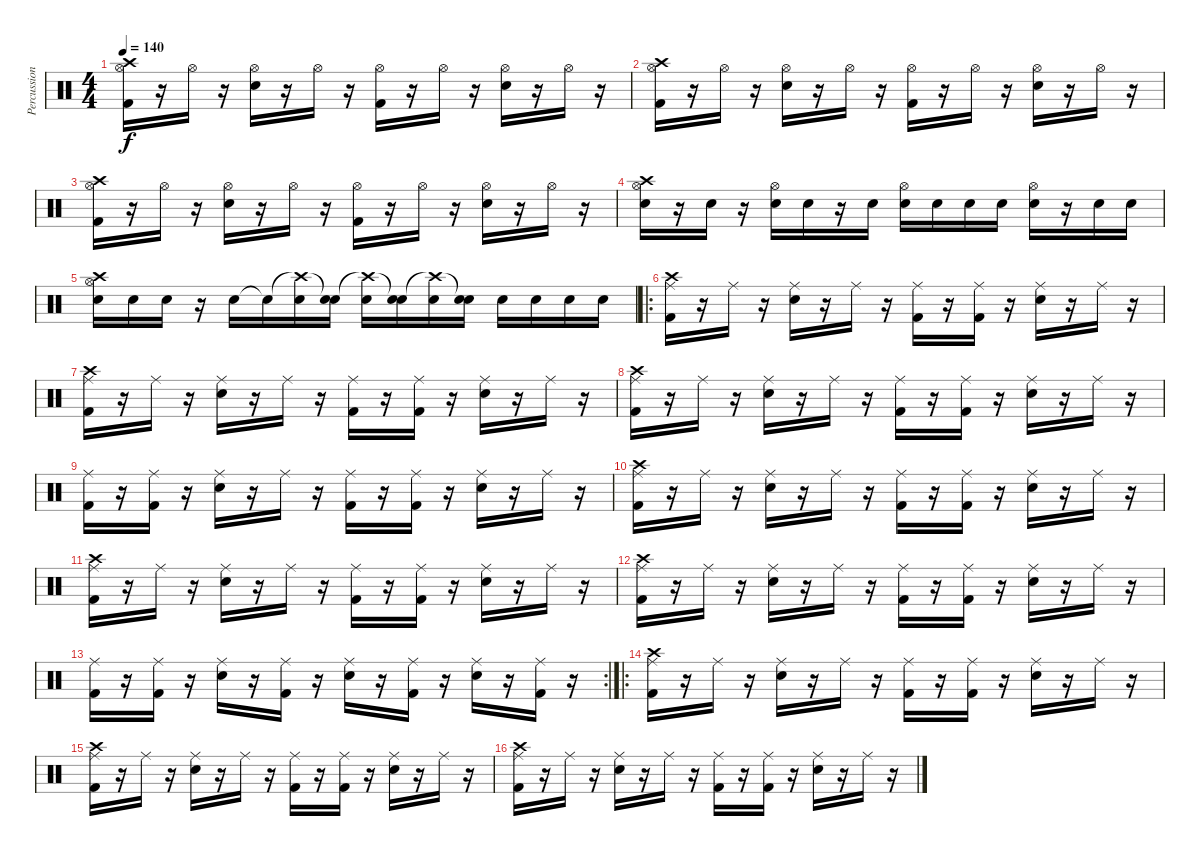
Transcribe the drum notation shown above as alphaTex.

\track ("Percussion" "Percussion") {instrument percussion}
\staff {score}
\articulation defaults
\ts (4 4)
\tempo 140
\clef neutral
\ks c
("Hi-Hat (open)" "Crash high (hit)" "Kick (hit) 2").16{dy f} r.16 "Hi-Hat (open)".16 r.16 ("Hi-Hat (open)" "Electric Snare (hit)").16 r.16 "Hi-Hat (open)".16 r.16 ("Hi-Hat (open)" "Kick (hit) 2").16 r.16 "Hi-Hat (open)".16 r.16 ("Hi-Hat (open)" "Electric Snare (hit)").16 r.16 "Hi-Hat (open)".16 r.16 |
("Hi-Hat (open)" "Crash high (hit)" "Kick (hit) 2").16 r.16 "Hi-Hat (open)".16 r.16 ("Hi-Hat (open)" "Electric Snare (hit)").16 r.16 "Hi-Hat (open)".16 r.16 ("Hi-Hat (open)" "Kick (hit) 2").16 r.16 "Hi-Hat (open)".16 r.16 ("Hi-Hat (open)" "Electric Snare (hit)").16 r.16 "Hi-Hat (open)".16 r.16 |
("Hi-Hat (open)" "Crash high (hit)" "Kick (hit) 2").16 r.16 "Hi-Hat (open)".16 r.16 ("Hi-Hat (open)" "Electric Snare (hit)").16 r.16 "Hi-Hat (open)".16 r.16 ("Hi-Hat (open)" "Kick (hit) 2").16 r.16 "Hi-Hat (open)".16 r.16 ("Hi-Hat (open)" "Electric Snare (hit)").16 r.16 "Hi-Hat (open)".16 r.16 |
("Hi-Hat (open)" "Crash high (hit)" "Electric Snare (hit)").16 r.16 "Electric Snare (hit)".16 r.16 ("Hi-Hat (open)" "Electric Snare (hit)").16 "Electric Snare (hit)".16 r.16 "Electric Snare (hit)".16 ("Hi-Hat (open)" "Electric Snare (hit)").16 "Electric Snare (hit)".16 "Electric Snare (hit)".16 "Electric Snare (hit)".16 ("Hi-Hat (open)" "Electric Snare (hit)").16 r.16 "Electric Snare (hit)".16 "Electric Snare (hit)".16 |
("Hi-Hat (open)" "Crash high (hit)" "Electric Snare (hit)").16 "Electric Snare (hit)".16 "Electric Snare (hit)".16 r.16 "Electric Snare (hit)".16 "Snare (hit)"{t}.16 ("Crash high (hit)"{t} "Electric Snare (hit)").16 ("Snare (hit)"{t} "Electric Snare (hit)").16 ("Crash high (hit)"{t} "Electric Snare (hit)").16 ("Snare (hit)"{t} "Electric Snare (hit)").16 ("Crash high (hit)"{t} "Electric Snare (hit)").16 ("Snare (hit)"{t} "Electric Snare (hit)").16 "Electric Snare (hit)".16 "Electric Snare (hit)".16 "Electric Snare (hit)".16 "Electric Snare (hit)".16 |
\ro
("Ride (middle)" "Crash high (hit)" "Kick (hit) 2").16 r.16 "Ride (middle)".16 r.16 ("Ride (middle)" "Electric Snare (hit)").16 r.16 "Ride (middle)".16 r.16 ("Ride (middle)" "Kick (hit) 2").16 r.16 ("Ride (middle)" "Kick (hit) 2").16 r.16 ("Ride (middle)" "Electric Snare (hit)").16 r.16 "Ride (middle)".16 r.16 |
("Ride (middle)" "Crash high (hit)" "Kick (hit) 2").16 r.16 "Ride (middle)".16 r.16 ("Ride (middle)" "Electric Snare (hit)").16 r.16 "Ride (middle)".16 r.16 ("Ride (middle)" "Kick (hit) 2").16 r.16 ("Ride (middle)" "Kick (hit) 2").16 r.16 ("Ride (middle)" "Electric Snare (hit)").16 r.16 "Ride (middle)".16 r.16 |
("Ride (middle)" "Crash high (hit)" "Kick (hit) 2").16 r.16 "Ride (middle)".16 r.16 ("Ride (middle)" "Electric Snare (hit)").16 r.16 "Ride (middle)".16 r.16 ("Ride (middle)" "Kick (hit) 2").16 r.16 ("Ride (middle)" "Kick (hit) 2").16 r.16 ("Ride (middle)" "Electric Snare (hit)").16 r.16 "Ride (middle)".16 r.16 |
("Ride (middle)" "Kick (hit) 2").16 r.16 ("Ride (middle)" "Kick (hit) 2").16 r.16 ("Ride (middle)" "Electric Snare (hit)").16 r.16 "Ride (middle)".16 r.16 ("Ride (middle)" "Kick (hit) 2").16 r.16 ("Ride (middle)" "Kick (hit) 2").16 r.16 ("Ride (middle)" "Electric Snare (hit)").16 r.16 "Ride (middle)".16 r.16 |
("Ride (middle)" "Crash high (hit)" "Kick (hit) 2").16 r.16 "Ride (middle)".16 r.16 ("Ride (middle)" "Electric Snare (hit)").16 r.16 "Ride (middle)".16 r.16 ("Ride (middle)" "Kick (hit) 2").16 r.16 ("Ride (middle)" "Kick (hit) 2").16 r.16 ("Ride (middle)" "Electric Snare (hit)").16 r.16 "Ride (middle)".16 r.16 |
("Ride (middle)" "Crash high (hit)" "Kick (hit) 2").16 r.16 "Ride (middle)".16 r.16 ("Ride (middle)" "Electric Snare (hit)").16 r.16 "Ride (middle)".16 r.16 ("Ride (middle)" "Kick (hit) 2").16 r.16 ("Ride (middle)" "Kick (hit) 2").16 r.16 ("Ride (middle)" "Electric Snare (hit)").16 r.16 "Ride (middle)".16 r.16 |
("Ride (middle)" "Crash high (hit)" "Kick (hit) 2").16 r.16 "Ride (middle)".16 r.16 ("Ride (middle)" "Electric Snare (hit)").16 r.16 "Ride (middle)".16 r.16 ("Ride (middle)" "Kick (hit) 2").16 r.16 ("Ride (middle)" "Kick (hit) 2").16 r.16 ("Ride (middle)" "Electric Snare (hit)").16 r.16 "Ride (middle)".16 r.16 |
\rc 2
("Ride (middle)" "Kick (hit) 2").16 r.16 ("Ride (middle)" "Kick (hit) 2").16 r.16 ("Ride (middle)" "Electric Snare (hit)").16 r.16 ("Ride (middle)" "Kick (hit) 2").16 r.16 ("Ride (middle)" "Electric Snare (hit)").16 r.16 ("Ride (middle)" "Kick (hit) 2").16 r.16 ("Ride (middle)" "Electric Snare (hit)").16 r.16 ("Ride (middle)" "Kick (hit) 2").16 r.16 |
\ro
("Ride (middle)" "Crash high (hit)" "Kick (hit) 2").16 r.16 "Ride (middle)".16 r.16 ("Ride (middle)" "Electric Snare (hit)").16 r.16 "Ride (middle)".16 r.16 ("Ride (middle)" "Kick (hit) 2").16 r.16 ("Ride (middle)" "Kick (hit) 2").16 r.16 ("Ride (middle)" "Electric Snare (hit)").16 r.16 "Ride (middle)".16 r.16 |
("Ride (middle)" "Crash high (hit)" "Kick (hit) 2").16 r.16 "Ride (middle)".16 r.16 ("Ride (middle)" "Electric Snare (hit)").16 r.16 "Ride (middle)".16 r.16 ("Ride (middle)" "Kick (hit) 2").16 r.16 ("Ride (middle)" "Kick (hit) 2").16 r.16 ("Ride (middle)" "Electric Snare (hit)").16 r.16 "Ride (middle)".16 r.16 |
("Ride (middle)" "Crash high (hit)" "Kick (hit) 2").16 r.16 "Ride (middle)".16 r.16 ("Ride (middle)" "Electric Snare (hit)").16 r.16 "Ride (middle)".16 r.16 ("Ride (middle)" "Kick (hit) 2").16 r.16 ("Ride (middle)" "Kick (hit) 2").16 r.16 ("Ride (middle)" "Electric Snare (hit)").16 r.16 "Ride (middle)".16 r.16
